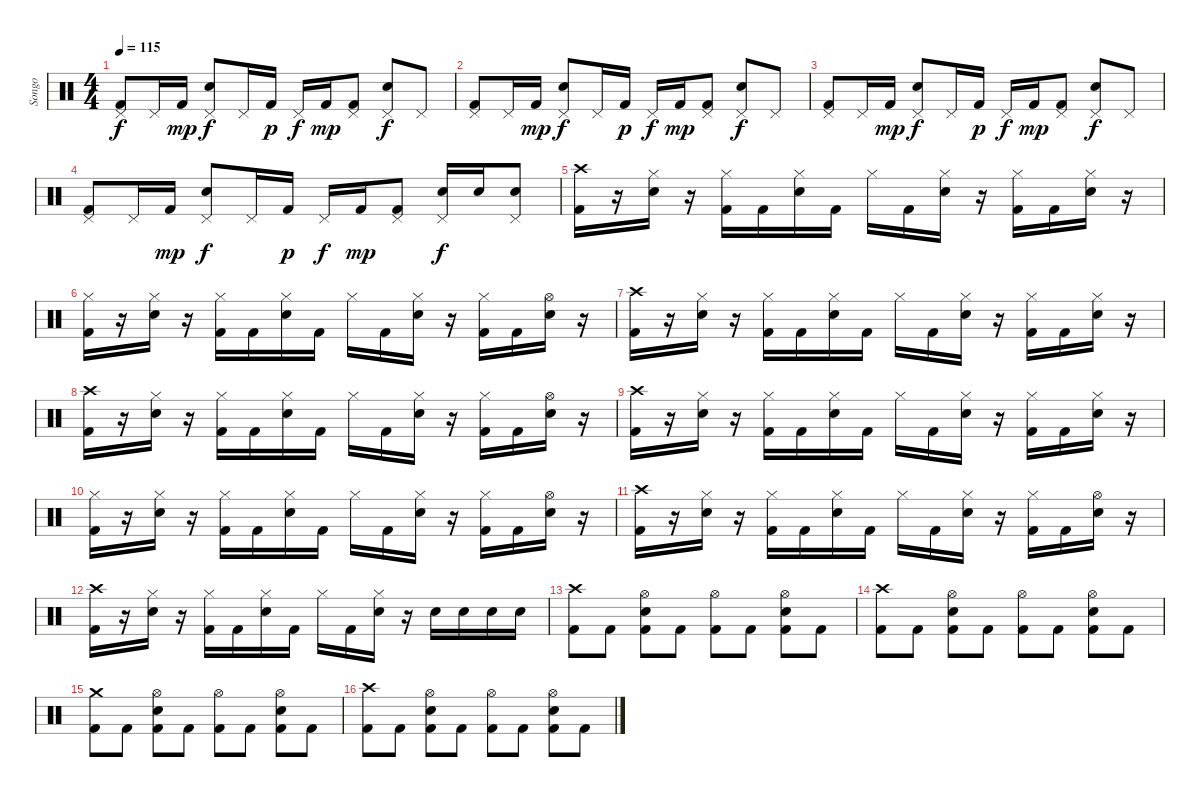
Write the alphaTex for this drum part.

\track ("Songo" "Songo") {instrument percussion}
\staff {score}
\articulation defaults
\ts (4 4)
\tempo 115
\clef neutral
\ks c
("Pedal Hi-Hat (hit)" "Kick (hit) 2").8{dy f} "Pedal Hi-Hat (hit)".16 "Kick (hit) 2".16{dy mp} ("Pedal Hi-Hat (hit)" "Snare (hit) 2").8{dy f} "Pedal Hi-Hat (hit)".16 "Kick (hit) 2".16{dy p} "Pedal Hi-Hat (hit)".16{dy f} "Kick (hit) 2".16{dy mp} ("Pedal Hi-Hat (hit)" "Kick (hit) 2").8 ("Pedal Hi-Hat (hit)" "Snare (hit) 2").8{dy f} "Pedal Hi-Hat (hit)".8 |
("Pedal Hi-Hat (hit)" "Kick (hit) 2").8 "Pedal Hi-Hat (hit)".16 "Kick (hit) 2".16{dy mp} ("Pedal Hi-Hat (hit)" "Snare (hit) 2").8{dy f} "Pedal Hi-Hat (hit)".16 "Kick (hit) 2".16{dy p} "Pedal Hi-Hat (hit)".16{dy f} "Kick (hit) 2".16{dy mp} ("Pedal Hi-Hat (hit)" "Kick (hit) 2").8 ("Pedal Hi-Hat (hit)" "Snare (hit) 2").8{dy f} "Pedal Hi-Hat (hit)".8 |
("Pedal Hi-Hat (hit)" "Kick (hit) 2").8 "Pedal Hi-Hat (hit)".16 "Kick (hit) 2".16{dy mp} ("Pedal Hi-Hat (hit)" "Snare (hit) 2").8{dy f} "Pedal Hi-Hat (hit)".16 "Kick (hit) 2".16{dy p} "Pedal Hi-Hat (hit)".16{dy f} "Kick (hit) 2".16{dy mp} ("Pedal Hi-Hat (hit)" "Kick (hit) 2").8 ("Pedal Hi-Hat (hit)" "Snare (hit) 2").8{dy f} "Pedal Hi-Hat (hit)".8 |
("Pedal Hi-Hat (hit)" "Kick (hit) 2").8 "Pedal Hi-Hat (hit)".16 "Kick (hit) 2".16{dy mp} ("Pedal Hi-Hat (hit)" "Snare (hit) 2").8{dy f} "Pedal Hi-Hat (hit)".16 "Kick (hit) 2".16{dy p} "Pedal Hi-Hat (hit)".16{dy f} "Kick (hit) 2".16{dy mp} ("Pedal Hi-Hat (hit)" "Kick (hit) 2").8 ("Pedal Hi-Hat (hit)" "Snare (hit) 2").16{dy f} "Snare (hit) 2".16 ("Pedal Hi-Hat (hit)" "Snare (hit) 2").8 |
("Crash high (hit)" "Kick (hit) 2").16 r.16 ("Hi-Hat (closed)" "Electric Snare (hit)").16 r.16 ("Hi-Hat (closed)" "Kick (hit) 2").16 "Kick (hit) 2".16 ("Hi-Hat (closed)" "Electric Snare (hit)").16 "Kick (hit) 2".16 "Hi-Hat (closed)".16 "Kick (hit) 2".16 ("Hi-Hat (closed)" "Electric Snare (hit)").16 r.16 ("Hi-Hat (closed)" "Kick (hit) 2").16 "Kick (hit) 2".16 ("Hi-Hat (closed)" "Electric Snare (hit)").16 r.16 |
("Hi-Hat (closed)" "Kick (hit) 2").16 r.16 ("Hi-Hat (closed)" "Electric Snare (hit)").16 r.16 ("Hi-Hat (closed)" "Kick (hit) 2").16 "Kick (hit) 2".16 ("Hi-Hat (closed)" "Electric Snare (hit)").16 "Kick (hit) 2".16 "Hi-Hat (closed)".16 "Kick (hit) 2".16 ("Hi-Hat (closed)" "Electric Snare (hit)").16 r.16 ("Hi-Hat (closed)" "Kick (hit) 2").16 "Kick (hit) 2".16 ("Hi-Hat (open)" "Electric Snare (hit)").16 r.16 |
("Crash high (hit)" "Kick (hit) 2").16 r.16 ("Hi-Hat (closed)" "Electric Snare (hit)").16 r.16 ("Hi-Hat (closed)" "Kick (hit) 2").16 "Kick (hit) 2".16 ("Hi-Hat (closed)" "Electric Snare (hit)").16 "Kick (hit) 2".16 "Hi-Hat (closed)".16 "Kick (hit) 2".16 ("Hi-Hat (closed)" "Electric Snare (hit)").16 r.16 ("Hi-Hat (closed)" "Kick (hit) 2").16 "Kick (hit) 2".16 ("Hi-Hat (closed)" "Electric Snare (hit)").16 r.16 |
("Crash high (hit)" "Kick (hit) 2").16 r.16 ("Hi-Hat (closed)" "Electric Snare (hit)").16 r.16 ("Hi-Hat (closed)" "Kick (hit) 2").16 "Kick (hit) 2".16 ("Hi-Hat (closed)" "Electric Snare (hit)").16 "Kick (hit) 2".16 "Hi-Hat (closed)".16 "Kick (hit) 2".16 ("Hi-Hat (closed)" "Electric Snare (hit)").16 r.16 ("Hi-Hat (closed)" "Kick (hit) 2").16 "Kick (hit) 2".16 ("Hi-Hat (open)" "Electric Snare (hit)").16 r.16 |
("Crash high (hit)" "Kick (hit) 2").16 r.16 ("Hi-Hat (closed)" "Electric Snare (hit)").16 r.16 ("Hi-Hat (closed)" "Kick (hit) 2").16 "Kick (hit) 2".16 ("Hi-Hat (closed)" "Electric Snare (hit)").16 "Kick (hit) 2".16 "Hi-Hat (closed)".16 "Kick (hit) 2".16 ("Hi-Hat (closed)" "Electric Snare (hit)").16 r.16 ("Hi-Hat (closed)" "Kick (hit) 2").16 "Kick (hit) 2".16 ("Hi-Hat (closed)" "Electric Snare (hit)").16 r.16 |
("Hi-Hat (closed)" "Kick (hit) 2").16 r.16 ("Hi-Hat (closed)" "Electric Snare (hit)").16 r.16 ("Hi-Hat (closed)" "Kick (hit) 2").16 "Kick (hit) 2".16 ("Hi-Hat (closed)" "Electric Snare (hit)").16 "Kick (hit) 2".16 "Hi-Hat (closed)".16 "Kick (hit) 2".16 ("Hi-Hat (closed)" "Electric Snare (hit)").16 r.16 ("Hi-Hat (closed)" "Kick (hit) 2").16 "Kick (hit) 2".16 ("Hi-Hat (open)" "Electric Snare (hit)").16 r.16 |
("Crash high (hit)" "Kick (hit) 2").16 r.16 ("Hi-Hat (closed)" "Electric Snare (hit)").16 r.16 ("Hi-Hat (closed)" "Kick (hit) 2").16 "Kick (hit) 2".16 ("Hi-Hat (closed)" "Electric Snare (hit)").16 "Kick (hit) 2".16 "Hi-Hat (closed)".16 "Kick (hit) 2".16 ("Hi-Hat (closed)" "Electric Snare (hit)").16 r.16 ("Hi-Hat (closed)" "Kick (hit) 2").16 "Kick (hit) 2".16 ("Hi-Hat (open)" "Electric Snare (hit)").16 r.16 |
("Crash high (hit)" "Kick (hit) 2").16 r.16 ("Hi-Hat (closed)" "Electric Snare (hit)").16 r.16 ("Hi-Hat (closed)" "Kick (hit) 2").16 "Kick (hit) 2".16 ("Hi-Hat (closed)" "Electric Snare (hit)").16 "Kick (hit) 2".16 "Hi-Hat (closed)".16 "Kick (hit) 2".16 ("Hi-Hat (closed)" "Electric Snare (hit)").16 r.16 "Electric Snare (hit)".16 "Electric Snare (hit)".16 "Electric Snare (hit)".16 "Electric Snare (hit)".16 |
("Crash high (hit)" "Kick (hit) 2").8 "Kick (hit) 2".8 ("Kick (hit) 2" "Electric Snare (hit)" "Hi-Hat (open)").8 "Kick (hit) 2".8 ("Kick (hit) 2" "Hi-Hat (open)").8 "Kick (hit) 2".8 ("Kick (hit) 2" "Electric Snare (hit)" "Hi-Hat (open)").8 "Kick (hit) 2".8 |
("Crash high (hit)" "Kick (hit) 2").8 "Kick (hit) 2".8 ("Kick (hit) 2" "Electric Snare (hit)" "Hi-Hat (open)").8 "Kick (hit) 2".8 ("Kick (hit) 2" "Hi-Hat (open)").8 "Kick (hit) 2".8 ("Kick (hit) 2" "Electric Snare (hit)" "Hi-Hat (open)").8 "Kick (hit) 2".8 |
("Crash medium (hit)" "Kick (hit) 2").8 "Kick (hit) 2".8 ("Kick (hit) 2" "Electric Snare (hit)" "Hi-Hat (open)").8 "Kick (hit) 2".8 ("Kick (hit) 2" "Hi-Hat (open)").8 "Kick (hit) 2".8 ("Kick (hit) 2" "Electric Snare (hit)" "Hi-Hat (open)").8 "Kick (hit) 2".8 |
("Crash high (hit)" "Kick (hit) 2").8 "Kick (hit) 2".8 ("Kick (hit) 2" "Electric Snare (hit)" "Hi-Hat (open)").8 "Kick (hit) 2".8 ("Kick (hit) 2" "Hi-Hat (open)").8 "Kick (hit) 2".8 ("Kick (hit) 2" "Electric Snare (hit)" "Hi-Hat (open)").8 "Kick (hit) 2".8
